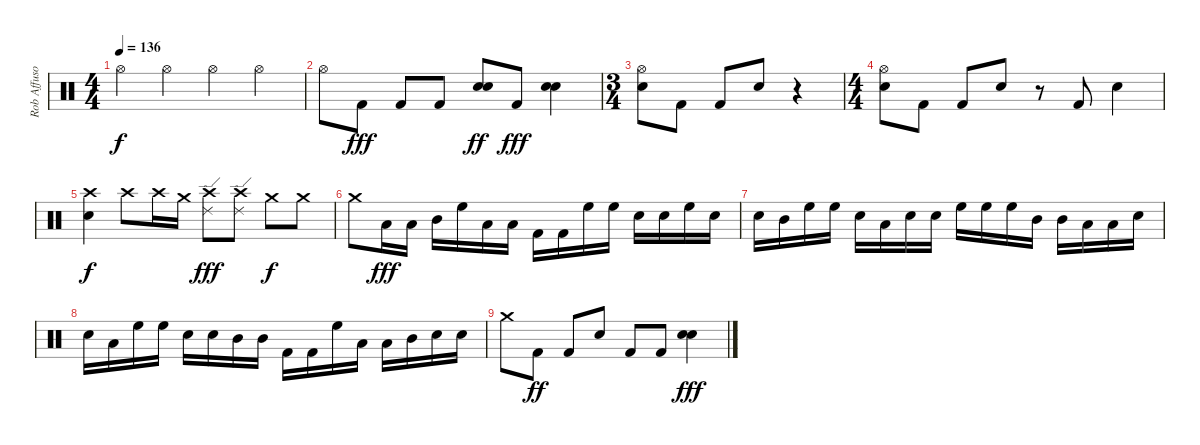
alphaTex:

\track ("Rob Affuso" "Rob Affuso") {instrument percussion}
\staff {score}
\articulation defaults
\ts (4 4)
\tempo 136
\clef neutral
\ks c "Hi-Hat (open)".4{dy f} "Hi-Hat (open)".4 "Hi-Hat (open)".4 "Hi-Hat (open)".4
|
"Hi-Hat (open)".8 "Kick (hit) 2".8{dy fff} "Kick (hit) 2".8 "Kick (hit) 2".8 ("Snare (hit) 2" "Snare (hit) 2").8{dy ff} "Kick (hit) 2".8{dy fff} ("Snare (hit) 2" "Snare (hit) 2").4 |
\ts (3 4)
("Hi-Hat (open)" "Snare (hit) 2").8 "Kick (hit) 2".8 "Kick (hit) 2".8 "Snare (hit) 2".8 r.4 |
\ts (4 4)
("Hi-Hat (open)" "Snare (hit) 2").8 "Kick (hit) 2".8 "Kick (hit) 2".8 "Snare (hit) 2".8 r.8 "Kick (hit) 2".8 "Snare (hit) 2".4 |
("Crash high (hit)" "Snare (hit) 2").4{dy f} "Crash high (hit)".8 "Crash high (hit)".16 "Crash medium (hit)".16 ("Crash high (hit)" "Ride (edge) 2").8{dy fff} ("Crash high (hit)" "Ride (edge) 2").8 "Crash medium (hit)".8{dy f} "Crash medium (hit)".8 |
"Crash medium (hit)".8 "Low Floor Tom (hit)".16{dy fff} "Low Tom (hit)".16 "Mid Tom (hit)".16 "High Floor Tom (hit)".16 "Low Tom (hit)".16 "Low Floor Tom (hit)".16 "Kick (hit) 2".16 "Kick (hit) 2".16 "High Floor Tom (hit)".16 "High Floor Tom (hit)".16 "Snare (hit) 2".16 "Snare (hit) 2".16 "High Floor Tom (hit)".16 "Snare (hit) 2".16 |
"Snare (hit) 2".16 "Mid Tom (hit)".16 "High Floor Tom (hit)".16 "High Floor Tom (hit)".16 "Snare (hit) 2".16 "Low Floor Tom (hit)".16 "Snare (hit) 2".16 "Snare (hit) 2".16 "High Floor Tom (hit)".16 "High Floor Tom (hit)".16 "High Floor Tom (hit)".16 "Mid Tom (hit)".16 "Mid Tom (hit)".16 "Low Tom (hit)".16 "Low Floor Tom (hit)".16 "Snare (hit) 2".16 |
"Snare (hit) 2".16 "Low Floor Tom (hit)".16 "High Floor Tom (hit)".16 "High Floor Tom (hit)".16 "Snare (hit) 2".16 "Snare (hit) 2".16 "Mid Tom (hit)".16 "Mid Tom (hit)".16 "Kick (hit) 2".16 "Kick (hit) 2".16 "High Floor Tom (hit)".16 "Low Floor Tom (hit)".16 "Low Tom (hit)".16 "Mid Tom (hit)".16 "Snare (hit) 2".16 "Snare (hit) 2".16 |
"Crash medium (hit)".8 "Kick (hit) 2".8{dy ff} "Kick (hit) 2".8 "Snare (hit) 2".8 "Kick (hit) 2".8 "Kick (hit) 2".8 ("Snare (hit) 2" "Snare (hit) 2").4{dy fff}
